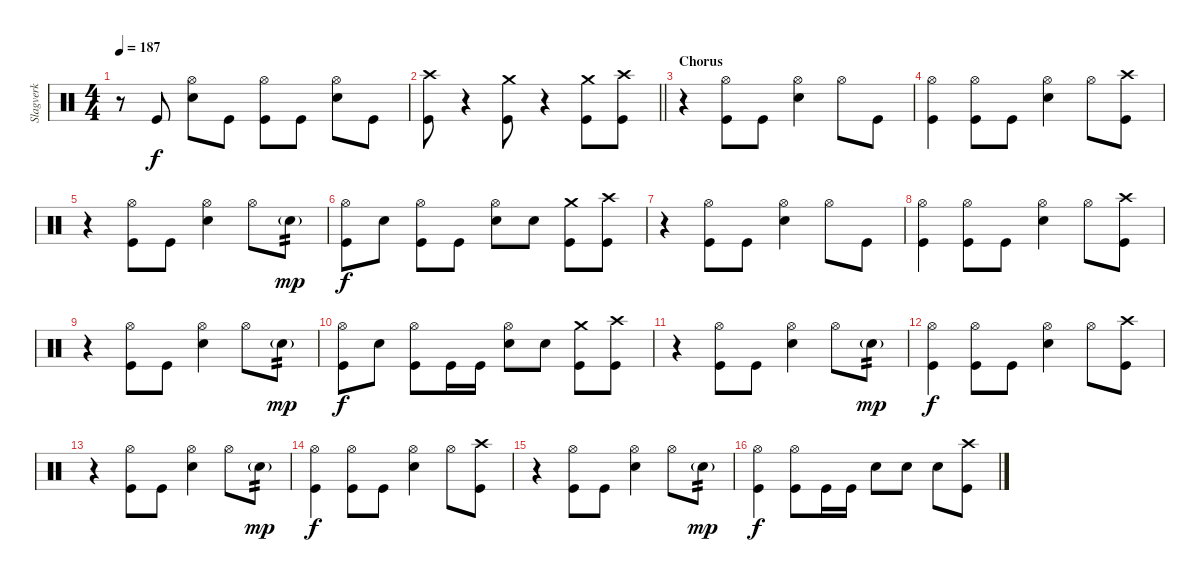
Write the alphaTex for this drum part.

\track ("Slagverk" "Slagverk") {instrument percussion}
\staff {score}
\articulation defaults
\ts (4 4)
\tempo 187
\clef neutral
\ks c
r.8{dy f} "Kick (hit)".8 ("Hi-Hat (open)" "Electric Snare (hit)").8 "Kick (hit)".8 ("Hi-Hat (open)" "Kick (hit)").8 "Kick (hit)".8 ("Hi-Hat (open)" "Electric Snare (hit)").8 "Kick (hit)".8 |
\barLineRight lightlight
("Crash high (hit)" "Kick (hit)").8 r.4 ("Crash medium (hit)" "Kick (hit)").8 r.4 ("Crash medium (hit)" "Kick (hit)").8 ("Crash high (hit)" "Kick (hit)").8 |
\section ("" "Chorus")
r.4 ("Hi-Hat (open)" "Kick (hit)").8 "Kick (hit)".8 ("Hi-Hat (open)" "Electric Snare (hit)").4 "Hi-Hat (open)".8 "Kick (hit)".8 |
("Hi-Hat (open)" "Kick (hit)").4 ("Hi-Hat (open)" "Kick (hit)").8 "Kick (hit)".8 ("Hi-Hat (open)" "Electric Snare (hit)").4 "Hi-Hat (open)".8 ("Crash high (hit)" "Kick (hit)").8 |
r.4 ("Hi-Hat (open)" "Kick (hit)").8 "Kick (hit)".8 ("Hi-Hat (open)" "Electric Snare (hit)").4 "Hi-Hat (open)".8 "Electric Snare (hit)"{g}.8{tp 2 dy mp} |
("Hi-Hat (open)" "Kick (hit)").8{dy f} "Electric Snare (hit)".8 ("Hi-Hat (open)" "Kick (hit)").8 "Kick (hit)".8 ("Hi-Hat (open)" "Electric Snare (hit)").8 "Electric Snare (hit)".8 ("Crash medium (hit)" "Kick (hit)").8 ("Crash high (hit)" "Kick (hit)").8 |
r.4 ("Hi-Hat (open)" "Kick (hit)").8 "Kick (hit)".8 ("Hi-Hat (open)" "Electric Snare (hit)").4 "Hi-Hat (open)".8 "Kick (hit)".8 |
("Hi-Hat (open)" "Kick (hit)").4 ("Hi-Hat (open)" "Kick (hit)").8 "Kick (hit)".8 ("Hi-Hat (open)" "Electric Snare (hit)").4 "Hi-Hat (open)".8 ("Crash high (hit)" "Kick (hit)").8 |
r.4 ("Hi-Hat (open)" "Kick (hit)").8 "Kick (hit)".8 ("Hi-Hat (open)" "Electric Snare (hit)").4 "Hi-Hat (open)".8 "Electric Snare (hit)"{g}.8{tp 2 dy mp} |
("Hi-Hat (open)" "Kick (hit)").8{dy f} "Electric Snare (hit)".8 ("Hi-Hat (open)" "Kick (hit)").8 "Kick (hit)".16 "Kick (hit)".16 ("Hi-Hat (open)" "Electric Snare (hit)").8 "Electric Snare (hit)".8 ("Crash medium (hit)" "Kick (hit)").8 ("Crash high (hit)" "Kick (hit)").8 |
r.4 ("Hi-Hat (open)" "Kick (hit)").8 "Kick (hit)".8 ("Hi-Hat (open)" "Electric Snare (hit)").4 "Hi-Hat (open)".8 "Electric Snare (hit)"{g}.8{tp 2 dy mp} |
("Hi-Hat (open)" "Kick (hit)").4{dy f} ("Hi-Hat (open)" "Kick (hit)").8 "Kick (hit)".8 ("Hi-Hat (open)" "Electric Snare (hit)").4 "Hi-Hat (open)".8 ("Crash high (hit)" "Kick (hit)").8 |
r.4 ("Hi-Hat (open)" "Kick (hit)").8 "Kick (hit)".8 ("Hi-Hat (open)" "Electric Snare (hit)").4 "Hi-Hat (open)".8 "Electric Snare (hit)"{g}.8{tp 2 dy mp} |
("Hi-Hat (open)" "Kick (hit)").4{dy f} ("Hi-Hat (open)" "Kick (hit)").8 "Kick (hit)".8 ("Hi-Hat (open)" "Electric Snare (hit)").4 "Hi-Hat (open)".8 ("Crash high (hit)" "Kick (hit)").8 |
r.4 ("Hi-Hat (open)" "Kick (hit)").8 "Kick (hit)".8 ("Hi-Hat (open)" "Electric Snare (hit)").4 "Hi-Hat (open)".8 "Electric Snare (hit)"{g}.8{tp 2 dy mp} |
("Hi-Hat (open)" "Kick (hit)").4{dy f} ("Hi-Hat (open)" "Kick (hit)").8 "Kick (hit)".16 "Kick (hit)".16 "Electric Snare (hit)".8 "Electric Snare (hit)".8 "Electric Snare (hit)".8 ("Crash high (hit)" "Kick (hit)").8
